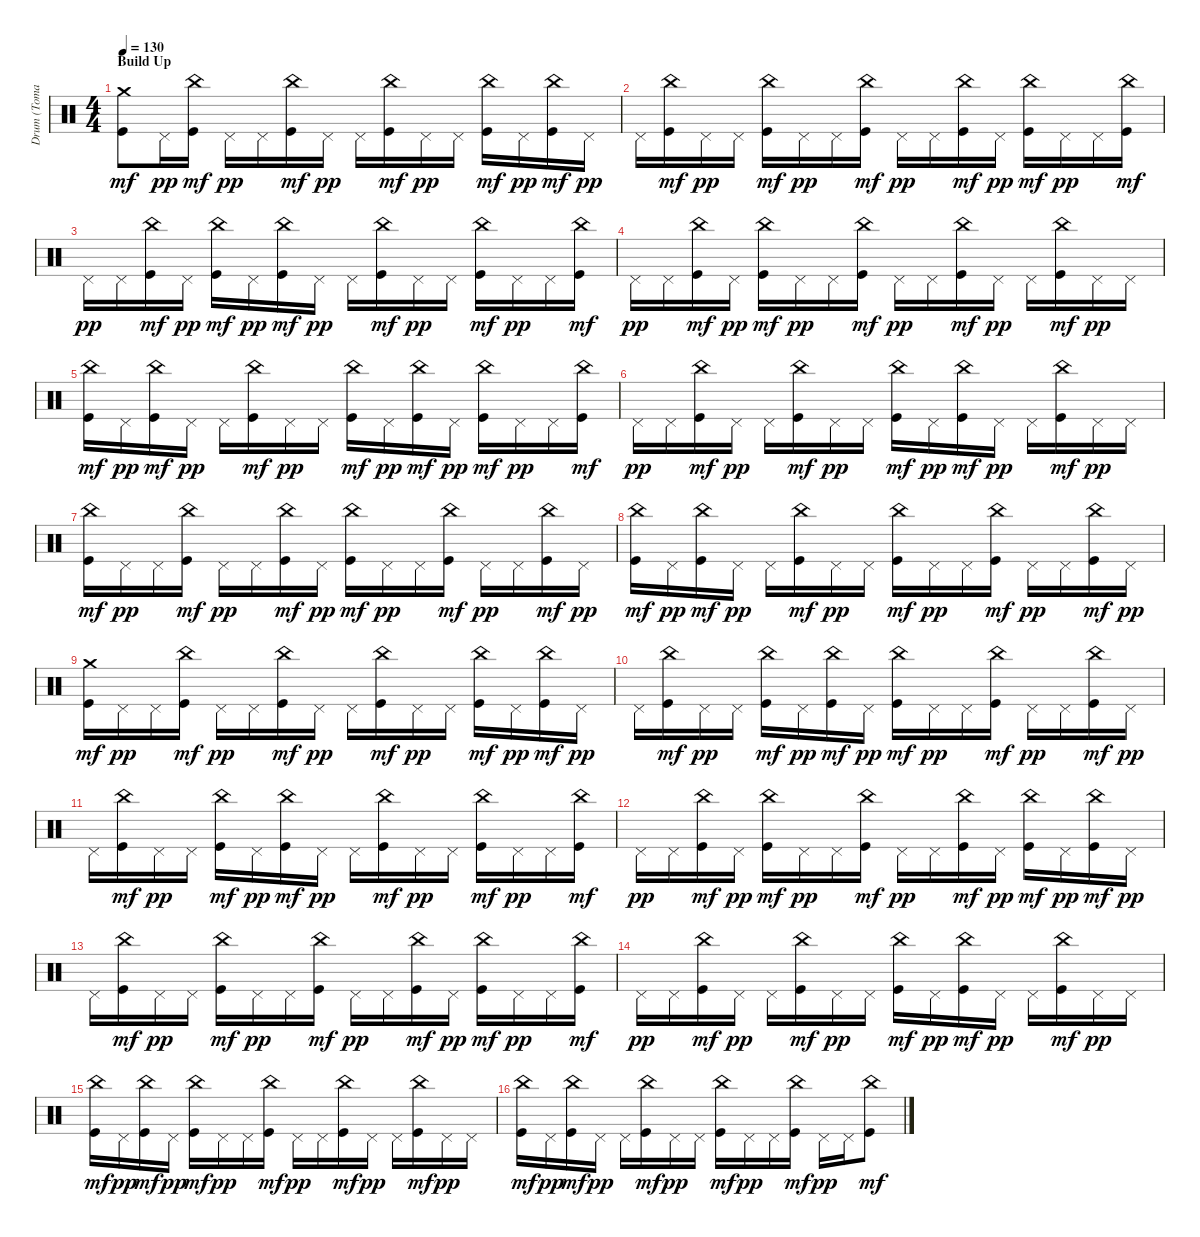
\track ("Drum (Tomas Haake)" "Drum (Toma") {instrument percussion}
\staff {score}
\articulation defaults
\ts (4 4)
\section ("" "Build Up")
\tempo 130
\clef neutral
\ks c
("Crash medium (hit)" "Kick (hit)").8{dy mf} "Pedal Hi-Hat (hit)".16{dy pp} ("China (hit)" "Kick (hit)").16{dy mf} "Pedal Hi-Hat (hit)".16{dy pp} "Pedal Hi-Hat (hit)".16 ("China (hit)" "Kick (hit)").16{dy mf} "Pedal Hi-Hat (hit)".16{dy pp} "Pedal Hi-Hat (hit)".16 ("China (hit)" "Kick (hit)").16{dy mf} "Pedal Hi-Hat (hit)".16{dy pp} "Pedal Hi-Hat (hit)".16 ("China (hit)" "Kick (hit)").16{dy mf} "Pedal Hi-Hat (hit)".16{dy pp} ("China (hit)" "Kick (hit)").16{dy mf} "Pedal Hi-Hat (hit)".16{dy pp} |
"Pedal Hi-Hat (hit)".16 ("China (hit)" "Kick (hit)").16{dy mf} "Pedal Hi-Hat (hit)".16{dy pp} "Pedal Hi-Hat (hit)".16 ("China (hit)" "Kick (hit)").16{dy mf} "Pedal Hi-Hat (hit)".16{dy pp} "Pedal Hi-Hat (hit)".16 ("China (hit)" "Kick (hit)").16{dy mf} "Pedal Hi-Hat (hit)".16{dy pp} "Pedal Hi-Hat (hit)".16 ("China (hit)" "Kick (hit)").16{dy mf} "Pedal Hi-Hat (hit)".16{dy pp} ("China (hit)" "Kick (hit)").16{dy mf} "Pedal Hi-Hat (hit)".16{dy pp} "Pedal Hi-Hat (hit)".16 ("China (hit)" "Kick (hit)").16{dy mf} |
"Pedal Hi-Hat (hit)".16{dy pp} "Pedal Hi-Hat (hit)".16 ("China (hit)" "Kick (hit)").16{dy mf} "Pedal Hi-Hat (hit)".16{dy pp} ("China (hit)" "Kick (hit)").16{dy mf} "Pedal Hi-Hat (hit)".16{dy pp} ("China (hit)" "Kick (hit)").16{dy mf} "Pedal Hi-Hat (hit)".16{dy pp} "Pedal Hi-Hat (hit)".16 ("China (hit)" "Kick (hit)").16{dy mf} "Pedal Hi-Hat (hit)".16{dy pp} "Pedal Hi-Hat (hit)".16 ("China (hit)" "Kick (hit)").16{dy mf} "Pedal Hi-Hat (hit)".16{dy pp} "Pedal Hi-Hat (hit)".16 ("China (hit)" "Kick (hit)").16{dy mf} |
"Pedal Hi-Hat (hit)".16{dy pp} "Pedal Hi-Hat (hit)".16 ("China (hit)" "Kick (hit)").16{dy mf} "Pedal Hi-Hat (hit)".16{dy pp} ("China (hit)" "Kick (hit)").16{dy mf} "Pedal Hi-Hat (hit)".16{dy pp} "Pedal Hi-Hat (hit)".16 ("China (hit)" "Kick (hit)").16{dy mf} "Pedal Hi-Hat (hit)".16{dy pp} "Pedal Hi-Hat (hit)".16 ("China (hit)" "Kick (hit)").16{dy mf} "Pedal Hi-Hat (hit)".16{dy pp} "Pedal Hi-Hat (hit)".16 ("China (hit)" "Kick (hit)").16{dy mf} "Pedal Hi-Hat (hit)".16{dy pp} "Pedal Hi-Hat (hit)".16 |
("China (hit)" "Kick (hit)").16{dy mf} "Pedal Hi-Hat (hit)".16{dy pp} ("China (hit)" "Kick (hit)").16{dy mf} "Pedal Hi-Hat (hit)".16{dy pp} "Pedal Hi-Hat (hit)".16 ("China (hit)" "Kick (hit)").16{dy mf} "Pedal Hi-Hat (hit)".16{dy pp} "Pedal Hi-Hat (hit)".16 ("China (hit)" "Kick (hit)").16{dy mf} "Pedal Hi-Hat (hit)".16{dy pp} ("China (hit)" "Kick (hit)").16{dy mf} "Pedal Hi-Hat (hit)".16{dy pp} ("China (hit)" "Kick (hit)").16{dy mf} "Pedal Hi-Hat (hit)".16{dy pp} "Pedal Hi-Hat (hit)".16 ("China (hit)" "Kick (hit)").16{dy mf} |
"Pedal Hi-Hat (hit)".16{dy pp} "Pedal Hi-Hat (hit)".16 ("China (hit)" "Kick (hit)").16{dy mf} "Pedal Hi-Hat (hit)".16{dy pp} "Pedal Hi-Hat (hit)".16 ("China (hit)" "Kick (hit)").16{dy mf} "Pedal Hi-Hat (hit)".16{dy pp} "Pedal Hi-Hat (hit)".16 ("China (hit)" "Kick (hit)").16{dy mf} "Pedal Hi-Hat (hit)".16{dy pp} ("China (hit)" "Kick (hit)").16{dy mf} "Pedal Hi-Hat (hit)".16{dy pp} "Pedal Hi-Hat (hit)".16 ("China (hit)" "Kick (hit)").16{dy mf} "Pedal Hi-Hat (hit)".16{dy pp} "Pedal Hi-Hat (hit)".16 |
("China (hit)" "Kick (hit)").16{dy mf} "Pedal Hi-Hat (hit)".16{dy pp} "Pedal Hi-Hat (hit)".16 ("China (hit)" "Kick (hit)").16{dy mf} "Pedal Hi-Hat (hit)".16{dy pp} "Pedal Hi-Hat (hit)".16 ("China (hit)" "Kick (hit)").16{dy mf} "Pedal Hi-Hat (hit)".16{dy pp} ("China (hit)" "Kick (hit)").16{dy mf} "Pedal Hi-Hat (hit)".16{dy pp} "Pedal Hi-Hat (hit)".16 ("China (hit)" "Kick (hit)").16{dy mf} "Pedal Hi-Hat (hit)".16{dy pp} "Pedal Hi-Hat (hit)".16 ("China (hit)" "Kick (hit)").16{dy mf} "Pedal Hi-Hat (hit)".16{dy pp} |
("China (hit)" "Kick (hit)").16{dy mf} "Pedal Hi-Hat (hit)".16{dy pp} ("China (hit)" "Kick (hit)").16{dy mf} "Pedal Hi-Hat (hit)".16{dy pp} "Pedal Hi-Hat (hit)".16 ("China (hit)" "Kick (hit)").16{dy mf} "Pedal Hi-Hat (hit)".16{dy pp} "Pedal Hi-Hat (hit)".16 ("China (hit)" "Kick (hit)").16{dy mf} "Pedal Hi-Hat (hit)".16{dy pp} "Pedal Hi-Hat (hit)".16 ("China (hit)" "Kick (hit)").16{dy mf} "Pedal Hi-Hat (hit)".16{dy pp} "Pedal Hi-Hat (hit)".16 ("China (hit)" "Kick (hit)").16{dy mf} "Pedal Hi-Hat (hit)".16{dy pp} |
("Crash medium (hit)" "Kick (hit)").16{dy mf} "Pedal Hi-Hat (hit)".16{dy pp} "Pedal Hi-Hat (hit)".16 ("China (hit)" "Kick (hit)").16{dy mf} "Pedal Hi-Hat (hit)".16{dy pp} "Pedal Hi-Hat (hit)".16 ("China (hit)" "Kick (hit)").16{dy mf} "Pedal Hi-Hat (hit)".16{dy pp} "Pedal Hi-Hat (hit)".16 ("China (hit)" "Kick (hit)").16{dy mf} "Pedal Hi-Hat (hit)".16{dy pp} "Pedal Hi-Hat (hit)".16 ("China (hit)" "Kick (hit)").16{dy mf} "Pedal Hi-Hat (hit)".16{dy pp} ("China (hit)" "Kick (hit)").16{dy mf} "Pedal Hi-Hat (hit)".16{dy pp} |
"Pedal Hi-Hat (hit)".16 ("China (hit)" "Kick (hit)").16{dy mf} "Pedal Hi-Hat (hit)".16{dy pp} "Pedal Hi-Hat (hit)".16 ("China (hit)" "Kick (hit)").16{dy mf} "Pedal Hi-Hat (hit)".16{dy pp} ("China (hit)" "Kick (hit)").16{dy mf} "Pedal Hi-Hat (hit)".16{dy pp} ("China (hit)" "Kick (hit)").16{dy mf} "Pedal Hi-Hat (hit)".16{dy pp} "Pedal Hi-Hat (hit)".16 ("China (hit)" "Kick (hit)").16{dy mf} "Pedal Hi-Hat (hit)".16{dy pp} "Pedal Hi-Hat (hit)".16 ("China (hit)" "Kick (hit)").16{dy mf} "Pedal Hi-Hat (hit)".16{dy pp} |
"Pedal Hi-Hat (hit)".16 ("China (hit)" "Kick (hit)").16{dy mf} "Pedal Hi-Hat (hit)".16{dy pp} "Pedal Hi-Hat (hit)".16 ("China (hit)" "Kick (hit)").16{dy mf} "Pedal Hi-Hat (hit)".16{dy pp} ("China (hit)" "Kick (hit)").16{dy mf} "Pedal Hi-Hat (hit)".16{dy pp} "Pedal Hi-Hat (hit)".16 ("China (hit)" "Kick (hit)").16{dy mf} "Pedal Hi-Hat (hit)".16{dy pp} "Pedal Hi-Hat (hit)".16 ("China (hit)" "Kick (hit)").16{dy mf} "Pedal Hi-Hat (hit)".16{dy pp} "Pedal Hi-Hat (hit)".16 ("China (hit)" "Kick (hit)").16{dy mf} |
"Pedal Hi-Hat (hit)".16{dy pp} "Pedal Hi-Hat (hit)".16 ("China (hit)" "Kick (hit)").16{dy mf} "Pedal Hi-Hat (hit)".16{dy pp} ("China (hit)" "Kick (hit)").16{dy mf} "Pedal Hi-Hat (hit)".16{dy pp} "Pedal Hi-Hat (hit)".16 ("China (hit)" "Kick (hit)").16{dy mf} "Pedal Hi-Hat (hit)".16{dy pp} "Pedal Hi-Hat (hit)".16 ("China (hit)" "Kick (hit)").16{dy mf} "Pedal Hi-Hat (hit)".16{dy pp} ("China (hit)" "Kick (hit)").16{dy mf} "Pedal Hi-Hat (hit)".16{dy pp} ("China (hit)" "Kick (hit)").16{dy mf} "Pedal Hi-Hat (hit)".16{dy pp} |
"Pedal Hi-Hat (hit)".16 ("China (hit)" "Kick (hit)").16{dy mf} "Pedal Hi-Hat (hit)".16{dy pp} "Pedal Hi-Hat (hit)".16 ("China (hit)" "Kick (hit)").16{dy mf} "Pedal Hi-Hat (hit)".16{dy pp} "Pedal Hi-Hat (hit)".16 ("China (hit)" "Kick (hit)").16{dy mf} "Pedal Hi-Hat (hit)".16{dy pp} "Pedal Hi-Hat (hit)".16 ("China (hit)" "Kick (hit)").16{dy mf} "Pedal Hi-Hat (hit)".16{dy pp} ("China (hit)" "Kick (hit)").16{dy mf} "Pedal Hi-Hat (hit)".16{dy pp} "Pedal Hi-Hat (hit)".16 ("China (hit)" "Kick (hit)").16{dy mf} |
"Pedal Hi-Hat (hit)".16{dy pp} "Pedal Hi-Hat (hit)".16 ("China (hit)" "Kick (hit)").16{dy mf} "Pedal Hi-Hat (hit)".16{dy pp} "Pedal Hi-Hat (hit)".16 ("China (hit)" "Kick (hit)").16{dy mf} "Pedal Hi-Hat (hit)".16{dy pp} "Pedal Hi-Hat (hit)".16 ("China (hit)" "Kick (hit)").16{dy mf} "Pedal Hi-Hat (hit)".16{dy pp} ("China (hit)" "Kick (hit)").16{dy mf} "Pedal Hi-Hat (hit)".16{dy pp} "Pedal Hi-Hat (hit)".16 ("China (hit)" "Kick (hit)").16{dy mf} "Pedal Hi-Hat (hit)".16{dy pp} "Pedal Hi-Hat (hit)".16 |
("China (hit)" "Kick (hit)").16{dy mf} "Pedal Hi-Hat (hit)".16{dy pp} ("China (hit)" "Kick (hit)").16{dy mf} "Pedal Hi-Hat (hit)".16{dy pp} ("China (hit)" "Kick (hit)").16{dy mf} "Pedal Hi-Hat (hit)".16{dy pp} "Pedal Hi-Hat (hit)".16 ("China (hit)" "Kick (hit)").16{dy mf} "Pedal Hi-Hat (hit)".16{dy pp} "Pedal Hi-Hat (hit)".16 ("China (hit)" "Kick (hit)").16{dy mf} "Pedal Hi-Hat (hit)".16{dy pp} "Pedal Hi-Hat (hit)".16 ("China (hit)" "Kick (hit)").16{dy mf} "Pedal Hi-Hat (hit)".16{dy pp} "Pedal Hi-Hat (hit)".16 |
("China (hit)" "Kick (hit)").16{dy mf} "Pedal Hi-Hat (hit)".16{dy pp} ("China (hit)" "Kick (hit)").16{dy mf} "Pedal Hi-Hat (hit)".16{dy pp} "Pedal Hi-Hat (hit)".16 ("China (hit)" "Kick (hit)").16{dy mf} "Pedal Hi-Hat (hit)".16{dy pp} "Pedal Hi-Hat (hit)".16 ("China (hit)" "Kick (hit)").16{dy mf} "Pedal Hi-Hat (hit)".16{dy pp} "Pedal Hi-Hat (hit)".16 ("China (hit)" "Kick (hit)").16{dy mf} "Pedal Hi-Hat (hit)".16{dy pp} "Pedal Hi-Hat (hit)".16 ("China (hit)" "Kick (hit)").8{dy mf}
